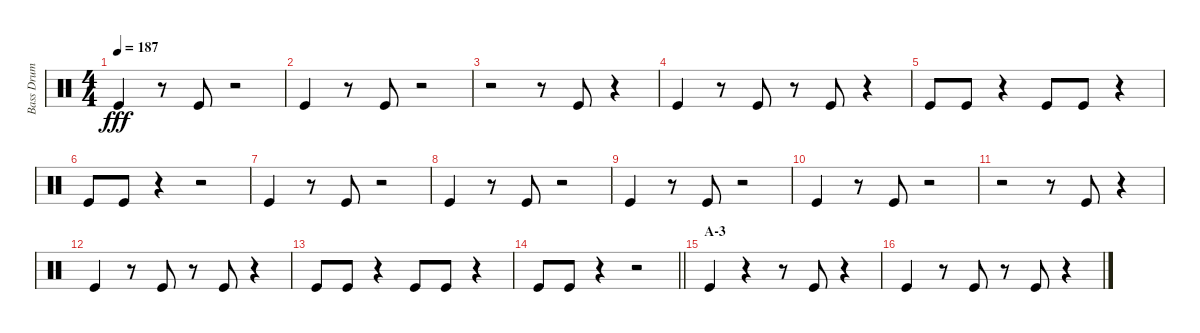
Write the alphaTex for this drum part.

\track ("Bass Drum" "Bass Drum") {instrument percussion}
\staff {score}
\articulation defaults
\ts (4 4)
\tempo 187
\clef neutral
\ks c "Kick (hit)".4{dy fff}
r.8 "Kick (hit)".8 r.2 |
"Kick (hit)".4 r.8 "Kick (hit)".8 r.2 |
r.2 r.8 "Kick (hit)".8 r.4 |
"Kick (hit)".4 r.8 "Kick (hit)".8 r.8 "Kick (hit)".8 r.4 |
"Kick (hit)".8 "Kick (hit)".8 r.4 "Kick (hit)".8 "Kick (hit)".8 r.4 |
"Kick (hit)".8 "Kick (hit)".8 r.4 r.2 |
"Kick (hit)".4 r.8 "Kick (hit)".8 r.2 |
"Kick (hit)".4 r.8 "Kick (hit)".8 r.2 |
"Kick (hit)".4 r.8 "Kick (hit)".8 r.2 |
"Kick (hit)".4 r.8 "Kick (hit)".8 r.2 |
r.2 r.8 "Kick (hit)".8 r.4 |
"Kick (hit)".4 r.8 "Kick (hit)".8 r.8 "Kick (hit)".8 r.4 |
"Kick (hit)".8 "Kick (hit)".8 r.4 "Kick (hit)".8 "Kick (hit)".8 r.4 |
\barLineRight lightlight "Kick (hit)".8 "Kick (hit)".8
r.4 r.2 |
\section ("" "A-3")
"Kick (hit)".4 r.4 r.8 "Kick (hit)".8 r.4 |
"Kick (hit)".4 r.8 "Kick (hit)".8 r.8 "Kick (hit)".8 r.4
